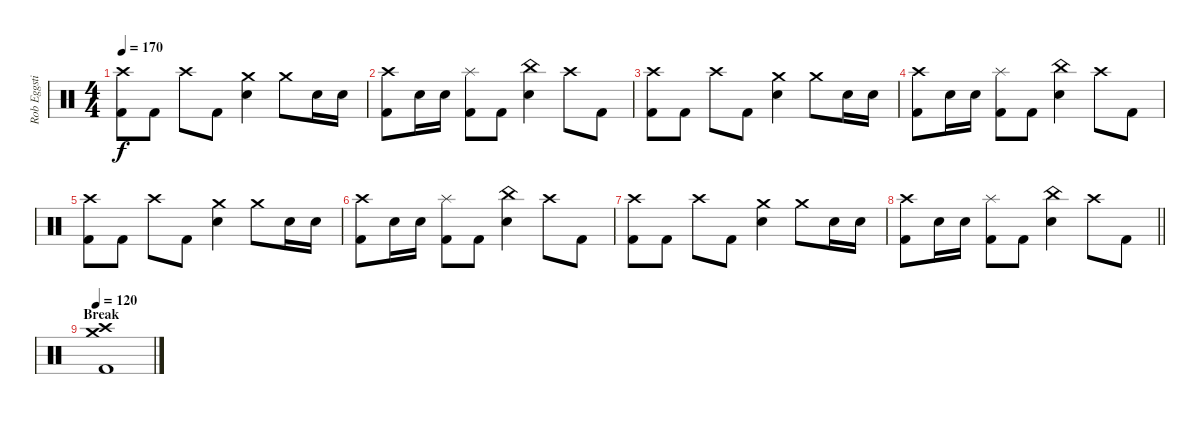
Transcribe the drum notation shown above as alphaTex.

\track ("Rob Eggstick" "Rob Eggsti") {instrument percussion}
\staff {score}
\articulation defaults
\ts (4 4)
\tempo 170
\clef neutral
\ks c
("Crash high (hit)" "Kick (hit) 2").8{dy f} "Kick (hit) 2".8 "Crash high (hit)".8 "Kick (hit) 2".8 ("Crash medium (hit)" "Electric Snare (hit)").4 "Crash medium (hit)".8 "Electric Snare (hit)".16 "Electric Snare (hit)".16 |
("Crash high (hit)" "Kick (hit) 2").8 "Electric Snare (hit)".16 "Electric Snare (hit)".16 ("Splash (hit)" "Kick (hit) 2").8 "Kick (hit) 2".8 ("China (hit)" "Electric Snare (hit)").4 "Crash high (hit)".8 "Kick (hit) 2".8 |
("Crash high (hit)" "Kick (hit) 2").8 "Kick (hit) 2".8 "Crash high (hit)".8 "Kick (hit) 2".8 ("Crash medium (hit)" "Electric Snare (hit)").4 "Crash medium (hit)".8 "Electric Snare (hit)".16 "Electric Snare (hit)".16 |
("Crash high (hit)" "Kick (hit) 2").8 "Electric Snare (hit)".16 "Electric Snare (hit)".16 ("Splash (hit)" "Kick (hit) 2").8 "Kick (hit) 2".8 ("China (hit)" "Electric Snare (hit)").4 "Crash high (hit)".8 "Kick (hit) 2".8 |
("Crash high (hit)" "Kick (hit) 2").8 "Kick (hit) 2".8 "Crash high (hit)".8 "Kick (hit) 2".8 ("Crash medium (hit)" "Electric Snare (hit)").4 "Crash medium (hit)".8 "Electric Snare (hit)".16 "Electric Snare (hit)".16 |
("Crash high (hit)" "Kick (hit) 2").8 "Electric Snare (hit)".16 "Electric Snare (hit)".16 ("Splash (hit)" "Kick (hit) 2").8 "Kick (hit) 2".8 ("China (hit)" "Electric Snare (hit)").4 "Crash high (hit)".8 "Kick (hit) 2".8 |
("Crash high (hit)" "Kick (hit) 2").8 "Kick (hit) 2".8 "Crash high (hit)".8 "Kick (hit) 2".8 ("Crash medium (hit)" "Electric Snare (hit)").4 "Crash medium (hit)".8 "Electric Snare (hit)".16 "Electric Snare (hit)".16 |
\barLineRight lightlight
("Crash high (hit)" "Kick (hit) 2").8 "Electric Snare (hit)".16 "Electric Snare (hit)".16 ("Splash (hit)" "Kick (hit) 2").8 "Kick (hit) 2".8 ("China (hit)" "Electric Snare (hit)").4 "Crash high (hit)".8 "Kick (hit) 2".8 |
\section ("" "Break")
\tempo 120
("Crash medium (hit)" "Crash high (hit)" "Kick (hit) 2").1
